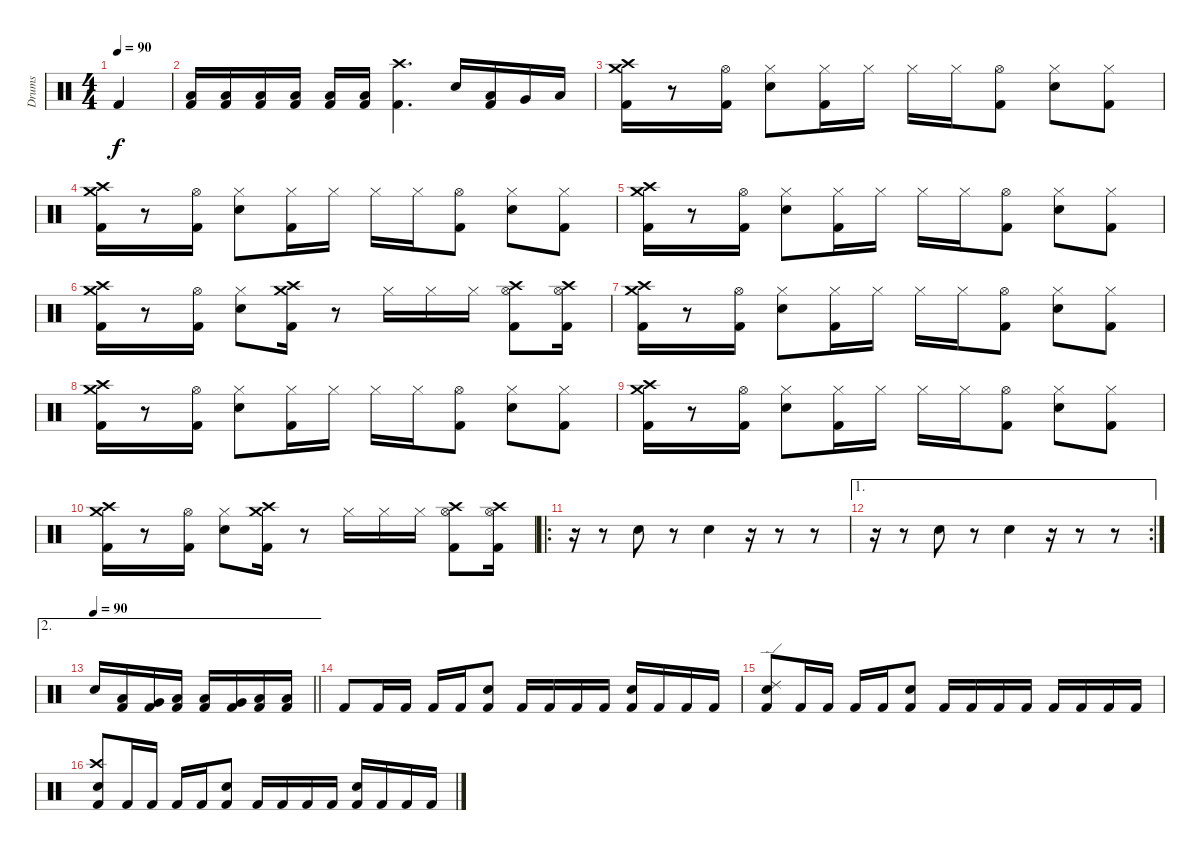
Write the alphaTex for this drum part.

\track ("Drums" "Drums") {instrument percussion}
\staff {score}
\articulation defaults
\ts (4 4)
\tempo 90
\clef neutral
\ks c "Kick (hit) 2".4{dy f}
|
("Kick (hit) 2" "Low Tom (hit)").16 ("Kick (hit) 2" "Low Tom (hit)").16 ("Kick (hit) 2" "Low Tom (hit)").16 ("Kick (hit) 2" "Low Floor Tom (hit)").16 ("Kick (hit) 2" "Low Floor Tom (hit)").16 ("Kick (hit) 2" "Low Floor Tom (hit)").16 ("Kick (hit) 2" "Crash high (hit)").4{d} "Electric Snare (hit)".16 ("Low Tom (hit)" "Kick (hit) 2").16 "Very Low Tom (hit)".16 "Low Floor Tom (hit)".16 |
("Crash high (hit)" "Crash medium (hit)" "Kick (hit) 2").16 r.8 ("Hi-Hat (open)" "Kick (hit) 2").16 ("Hi-Hat (closed)" "Electric Snare (hit)").8 ("Hi-Hat (closed)" "Kick (hit) 2").16 "Hi-Hat (closed)".16 "Hi-Hat (closed)".16 "Hi-Hat (closed)".16 ("Hi-Hat (open)" "Kick (hit) 2").8 ("Hi-Hat (closed)" "Electric Snare (hit)").8 ("Hi-Hat (closed)" "Kick (hit) 2").8 |
("Crash high (hit)" "Crash medium (hit)" "Kick (hit) 2").16 r.8 ("Hi-Hat (open)" "Kick (hit) 2").16 ("Hi-Hat (closed)" "Electric Snare (hit)").8 ("Hi-Hat (closed)" "Kick (hit) 2").16 "Hi-Hat (closed)".16 "Hi-Hat (closed)".16 "Hi-Hat (closed)".16 ("Hi-Hat (open)" "Kick (hit) 2").8 ("Hi-Hat (closed)" "Electric Snare (hit)").8 ("Hi-Hat (closed)" "Kick (hit) 2").8 |
("Crash high (hit)" "Crash medium (hit)" "Kick (hit) 2").16 r.8 ("Hi-Hat (open)" "Kick (hit) 2").16 ("Hi-Hat (closed)" "Electric Snare (hit)").8 ("Hi-Hat (closed)" "Kick (hit) 2").16 "Hi-Hat (closed)".16 "Hi-Hat (closed)".16 "Hi-Hat (closed)".16 ("Hi-Hat (open)" "Kick (hit) 2").8 ("Hi-Hat (closed)" "Electric Snare (hit)").8 ("Hi-Hat (closed)" "Kick (hit) 2").8 |
("Crash high (hit)" "Crash medium (hit)" "Kick (hit) 2").16 r.8 ("Hi-Hat (open)" "Kick (hit) 2").16 ("Hi-Hat (closed)" "Electric Snare (hit)").8 ("Crash high (hit)" "Crash medium (hit)" "Kick (hit) 2").16 r.8 "Hi-Hat (closed)".16 "Hi-Hat (closed)".16 "Hi-Hat (closed)".16 ("Crash high (hit)" "Hi-Hat (open)" "Kick (hit) 2").8 ("Crash high (hit)" "Hi-Hat (open)" "Kick (hit) 2").16 |
("Crash high (hit)" "Crash medium (hit)" "Kick (hit) 2").16 r.8 ("Hi-Hat (open)" "Kick (hit) 2").16 ("Hi-Hat (closed)" "Electric Snare (hit)").8 ("Hi-Hat (closed)" "Kick (hit) 2").16 "Hi-Hat (closed)".16 "Hi-Hat (closed)".16 "Hi-Hat (closed)".16 ("Hi-Hat (open)" "Kick (hit) 2").8 ("Hi-Hat (closed)" "Electric Snare (hit)").8 ("Hi-Hat (closed)" "Kick (hit) 2").8 |
("Crash high (hit)" "Crash medium (hit)" "Kick (hit) 2").16 r.8 ("Hi-Hat (open)" "Kick (hit) 2").16 ("Hi-Hat (closed)" "Electric Snare (hit)").8 ("Hi-Hat (closed)" "Kick (hit) 2").16 "Hi-Hat (closed)".16 "Hi-Hat (closed)".16 "Hi-Hat (closed)".16 ("Hi-Hat (open)" "Kick (hit) 2").8 ("Hi-Hat (closed)" "Electric Snare (hit)").8 ("Hi-Hat (closed)" "Kick (hit) 2").8 |
("Crash high (hit)" "Crash medium (hit)" "Kick (hit) 2").16 r.8 ("Hi-Hat (open)" "Kick (hit) 2").16 ("Hi-Hat (closed)" "Electric Snare (hit)").8 ("Hi-Hat (closed)" "Kick (hit) 2").16 "Hi-Hat (closed)".16 "Hi-Hat (closed)".16 "Hi-Hat (closed)".16 ("Hi-Hat (open)" "Kick (hit) 2").8 ("Hi-Hat (closed)" "Electric Snare (hit)").8 ("Hi-Hat (closed)" "Kick (hit) 2").8 |
("Crash high (hit)" "Crash medium (hit)" "Kick (hit) 2").16 r.8 ("Hi-Hat (open)" "Kick (hit) 2").16 ("Hi-Hat (closed)" "Electric Snare (hit)").8 ("Crash high (hit)" "Crash medium (hit)" "Kick (hit) 2").16 r.8 "Hi-Hat (closed)".16 "Hi-Hat (closed)".16 "Hi-Hat (closed)".16 ("Crash high (hit)" "Hi-Hat (open)" "Kick (hit) 2").8 ("Crash high (hit)" "Hi-Hat (open)" "Kick (hit) 2").16 |
\ro
r.16 r.8 "Electric Snare (hit)".8 r.8 "Electric Snare (hit)".4 r.16 r.8 r.8 |
\ae 1
\rc 2
r.16 r.8 "Electric Snare (hit)".8 r.8 "Electric Snare (hit)".4 r.16 r.8 r.8 |
\ae 2
\tempo 90
\barLineRight lightlight "Electric Snare (hit)".16
("Low Tom (hit)" "Kick (hit) 2").16 ("Very Low Tom (hit)" "Kick (hit) 2").16 ("Low Floor Tom (hit)" "Kick (hit) 2").16 ("Low Tom (hit)" "Kick (hit) 2").16 ("Very Low Tom (hit)" "Kick (hit) 2").16 ("Low Floor Tom (hit)" "Kick (hit) 2").16 ("Low Tom (hit)" "Kick (hit) 2").16 |
"Kick (hit) 2".8 "Kick (hit) 2".16 "Kick (hit) 2".16 "Kick (hit) 2".16 "Kick (hit) 2".16 ("Snare (hit) 2" "Kick (hit) 2").8 "Kick (hit) 2".16 "Kick (hit) 2".16 "Kick (hit) 2".16 "Kick (hit) 2".16 ("Snare (hit) 2" "Kick (hit) 2").16 "Kick (hit) 2".16 "Kick (hit) 2".16 "Kick (hit) 2".16 |
("Ride (edge) 2" "Snare (hit) 2" "Kick (hit) 2").8 "Kick (hit) 2".16 "Kick (hit) 2".16 "Kick (hit) 2".16 "Kick (hit) 2".16 ("Snare (hit) 2" "Kick (hit) 2").8 "Kick (hit) 2".16 "Kick (hit) 2".16 "Kick (hit) 2".16 "Kick (hit) 2".16 "Kick (hit) 2".16 "Kick (hit) 2".16 "Kick (hit) 2".16 "Kick (hit) 2".16 |
("Crash high (hit)" "Snare (hit) 2" "Kick (hit) 2").8 "Kick (hit) 2".16 "Kick (hit) 2".16 "Kick (hit) 2".16 "Kick (hit) 2".16 ("Snare (hit) 2" "Kick (hit) 2").8 "Kick (hit) 2".16 "Kick (hit) 2".16 "Kick (hit) 2".16 "Kick (hit) 2".16 ("Snare (hit) 2" "Kick (hit) 2").16 "Kick (hit) 2".16 "Kick (hit) 2".16 "Kick (hit) 2".16
